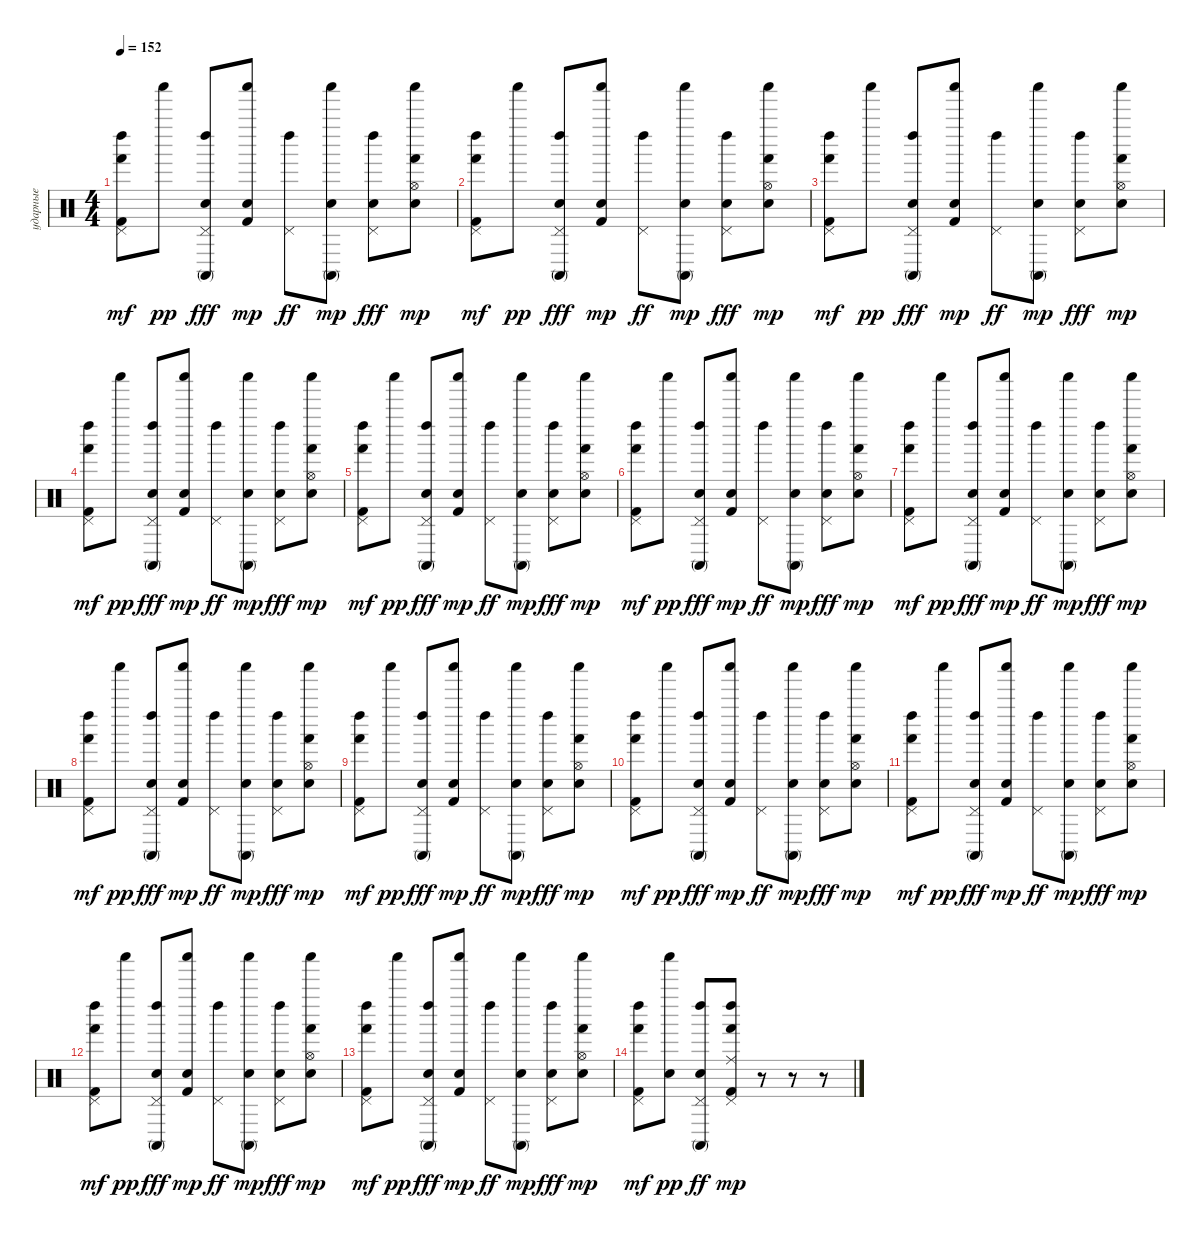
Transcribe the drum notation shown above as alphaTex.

\track ("ударные" "ударные") {instrument percussion}
\staff {score}
\articulation defaults
\ts (4 4)
\tempo 152
\clef neutral
\ks c
("Pedal Hi-Hat (hit)" "Left Maraca (hit)" "Hand (hit)" "Kick (hit) 2").8{dy mf} "Shaker (hit)".8{dy pp} ("Pedal Hi-Hat (hit)" "Left Maraca (hit)" "Conga high (mute)" "Snare (hit) 2").8{dy fff} ("Shaker (hit)" "Kick (hit) 2" "Electric Snare (hit)").8{dy mp} ("Pedal Hi-Hat (hit)" "Left Maraca (hit)").8{dy ff} ("Shaker (hit)" "Conga high (mute)" "Electric Snare (hit)").8{dy mp} ("Pedal Hi-Hat (hit)" "Left Maraca (hit)" "Snare (hit) 2").8{dy fff} ("Shaker (hit)" "Hi-Hat (open)" "Hand (hit)" "Electric Snare (hit)").8{dy mp} |
("Pedal Hi-Hat (hit)" "Left Maraca (hit)" "Hand (hit)" "Kick (hit) 2").8{dy mf} "Shaker (hit)".8{dy pp} ("Pedal Hi-Hat (hit)" "Left Maraca (hit)" "Conga high (mute)" "Snare (hit) 2").8{dy fff} ("Shaker (hit)" "Kick (hit) 2" "Electric Snare (hit)").8{dy mp} ("Pedal Hi-Hat (hit)" "Left Maraca (hit)").8{dy ff} ("Shaker (hit)" "Conga high (mute)" "Electric Snare (hit)").8{dy mp} ("Pedal Hi-Hat (hit)" "Left Maraca (hit)" "Snare (hit) 2").8{dy fff} ("Shaker (hit)" "Hi-Hat (open)" "Hand (hit)" "Electric Snare (hit)").8{dy mp} |
("Pedal Hi-Hat (hit)" "Left Maraca (hit)" "Hand (hit)" "Kick (hit) 2").8{dy mf} "Shaker (hit)".8{dy pp} ("Pedal Hi-Hat (hit)" "Left Maraca (hit)" "Conga high (mute)" "Snare (hit) 2").8{dy fff} ("Shaker (hit)" "Kick (hit) 2" "Electric Snare (hit)").8{dy mp} ("Pedal Hi-Hat (hit)" "Left Maraca (hit)").8{dy ff} ("Shaker (hit)" "Conga high (mute)" "Electric Snare (hit)").8{dy mp} ("Pedal Hi-Hat (hit)" "Left Maraca (hit)" "Snare (hit) 2").8{dy fff} ("Shaker (hit)" "Hi-Hat (open)" "Hand (hit)" "Electric Snare (hit)").8{dy mp} |
("Pedal Hi-Hat (hit)" "Left Maraca (hit)" "Hand (hit)" "Kick (hit) 2").8{dy mf} "Shaker (hit)".8{dy pp} ("Pedal Hi-Hat (hit)" "Left Maraca (hit)" "Conga high (mute)" "Snare (hit) 2").8{dy fff} ("Shaker (hit)" "Kick (hit) 2" "Electric Snare (hit)").8{dy mp} ("Pedal Hi-Hat (hit)" "Left Maraca (hit)").8{dy ff} ("Shaker (hit)" "Conga high (mute)" "Electric Snare (hit)").8{dy mp} ("Pedal Hi-Hat (hit)" "Left Maraca (hit)" "Snare (hit) 2").8{dy fff} ("Shaker (hit)" "Hi-Hat (open)" "Hand (hit)" "Electric Snare (hit)").8{dy mp} |
("Pedal Hi-Hat (hit)" "Left Maraca (hit)" "Hand (hit)" "Kick (hit) 2").8{dy mf} "Shaker (hit)".8{dy pp} ("Pedal Hi-Hat (hit)" "Left Maraca (hit)" "Conga high (mute)" "Snare (hit) 2").8{dy fff} ("Shaker (hit)" "Kick (hit) 2" "Electric Snare (hit)").8{dy mp} ("Pedal Hi-Hat (hit)" "Left Maraca (hit)").8{dy ff} ("Shaker (hit)" "Conga high (mute)" "Electric Snare (hit)").8{dy mp} ("Pedal Hi-Hat (hit)" "Left Maraca (hit)" "Snare (hit) 2").8{dy fff} ("Shaker (hit)" "Hi-Hat (open)" "Hand (hit)" "Electric Snare (hit)").8{dy mp} |
("Pedal Hi-Hat (hit)" "Left Maraca (hit)" "Hand (hit)" "Kick (hit) 2").8{dy mf} "Shaker (hit)".8{dy pp} ("Pedal Hi-Hat (hit)" "Left Maraca (hit)" "Conga high (mute)" "Snare (hit) 2").8{dy fff} ("Shaker (hit)" "Kick (hit) 2" "Electric Snare (hit)").8{dy mp} ("Pedal Hi-Hat (hit)" "Left Maraca (hit)").8{dy ff} ("Shaker (hit)" "Conga high (mute)" "Electric Snare (hit)").8{dy mp} ("Pedal Hi-Hat (hit)" "Left Maraca (hit)" "Snare (hit) 2").8{dy fff} ("Shaker (hit)" "Hi-Hat (open)" "Hand (hit)" "Electric Snare (hit)").8{dy mp} |
("Pedal Hi-Hat (hit)" "Left Maraca (hit)" "Hand (hit)" "Kick (hit) 2").8{dy mf} "Shaker (hit)".8{dy pp} ("Pedal Hi-Hat (hit)" "Left Maraca (hit)" "Conga high (mute)" "Snare (hit) 2").8{dy fff} ("Shaker (hit)" "Kick (hit) 2" "Electric Snare (hit)").8{dy mp} ("Pedal Hi-Hat (hit)" "Left Maraca (hit)").8{dy ff} ("Shaker (hit)" "Conga high (mute)" "Electric Snare (hit)").8{dy mp} ("Pedal Hi-Hat (hit)" "Left Maraca (hit)" "Snare (hit) 2").8{dy fff} ("Shaker (hit)" "Hi-Hat (open)" "Hand (hit)" "Electric Snare (hit)").8{dy mp} |
("Pedal Hi-Hat (hit)" "Left Maraca (hit)" "Hand (hit)" "Kick (hit) 2").8{dy mf} "Shaker (hit)".8{dy pp} ("Pedal Hi-Hat (hit)" "Left Maraca (hit)" "Conga high (mute)" "Snare (hit) 2").8{dy fff} ("Shaker (hit)" "Kick (hit) 2" "Electric Snare (hit)").8{dy mp} ("Pedal Hi-Hat (hit)" "Left Maraca (hit)").8{dy ff} ("Shaker (hit)" "Conga high (mute)" "Electric Snare (hit)").8{dy mp} ("Pedal Hi-Hat (hit)" "Left Maraca (hit)" "Snare (hit) 2").8{dy fff} ("Shaker (hit)" "Hi-Hat (open)" "Hand (hit)" "Electric Snare (hit)").8{dy mp} |
("Pedal Hi-Hat (hit)" "Left Maraca (hit)" "Hand (hit)" "Kick (hit) 2").8{dy mf} "Shaker (hit)".8{dy pp} ("Pedal Hi-Hat (hit)" "Left Maraca (hit)" "Conga high (mute)" "Snare (hit) 2").8{dy fff} ("Shaker (hit)" "Kick (hit) 2" "Electric Snare (hit)").8{dy mp} ("Pedal Hi-Hat (hit)" "Left Maraca (hit)").8{dy ff} ("Shaker (hit)" "Conga high (mute)" "Electric Snare (hit)").8{dy mp} ("Pedal Hi-Hat (hit)" "Left Maraca (hit)" "Snare (hit) 2").8{dy fff} ("Shaker (hit)" "Hi-Hat (open)" "Hand (hit)" "Electric Snare (hit)").8{dy mp} |
("Pedal Hi-Hat (hit)" "Left Maraca (hit)" "Hand (hit)" "Kick (hit) 2").8{dy mf} "Shaker (hit)".8{dy pp} ("Pedal Hi-Hat (hit)" "Left Maraca (hit)" "Conga high (mute)" "Snare (hit) 2").8{dy fff} ("Shaker (hit)" "Kick (hit) 2" "Electric Snare (hit)").8{dy mp} ("Pedal Hi-Hat (hit)" "Left Maraca (hit)").8{dy ff} ("Shaker (hit)" "Conga high (mute)" "Electric Snare (hit)").8{dy mp} ("Pedal Hi-Hat (hit)" "Left Maraca (hit)" "Snare (hit) 2").8{dy fff} ("Shaker (hit)" "Hi-Hat (open)" "Hand (hit)" "Electric Snare (hit)").8{dy mp} |
("Pedal Hi-Hat (hit)" "Left Maraca (hit)" "Hand (hit)" "Kick (hit) 2").8{dy mf} "Shaker (hit)".8{dy pp} ("Pedal Hi-Hat (hit)" "Left Maraca (hit)" "Conga high (mute)" "Snare (hit) 2").8{dy fff} ("Shaker (hit)" "Kick (hit) 2" "Electric Snare (hit)").8{dy mp} ("Pedal Hi-Hat (hit)" "Left Maraca (hit)").8{dy ff} ("Shaker (hit)" "Conga high (mute)" "Electric Snare (hit)").8{dy mp} ("Pedal Hi-Hat (hit)" "Left Maraca (hit)" "Snare (hit) 2").8{dy fff} ("Shaker (hit)" "Hi-Hat (open)" "Hand (hit)" "Electric Snare (hit)").8{dy mp} |
("Pedal Hi-Hat (hit)" "Left Maraca (hit)" "Hand (hit)" "Kick (hit) 2").8{dy mf} "Shaker (hit)".8{dy pp} ("Pedal Hi-Hat (hit)" "Left Maraca (hit)" "Conga high (mute)" "Snare (hit) 2").8{dy fff} ("Shaker (hit)" "Kick (hit) 2" "Electric Snare (hit)").8{dy mp} ("Pedal Hi-Hat (hit)" "Left Maraca (hit)").8{dy ff} ("Shaker (hit)" "Conga high (mute)" "Electric Snare (hit)").8{dy mp} ("Pedal Hi-Hat (hit)" "Left Maraca (hit)" "Snare (hit) 2").8{dy fff} ("Shaker (hit)" "Hi-Hat (open)" "Hand (hit)" "Electric Snare (hit)").8{dy mp} |
("Pedal Hi-Hat (hit)" "Left Maraca (hit)" "Hand (hit)" "Kick (hit) 2").8{dy mf} "Shaker (hit)".8{dy pp} ("Pedal Hi-Hat (hit)" "Left Maraca (hit)" "Conga high (mute)" "Snare (hit) 2").8{dy fff} ("Shaker (hit)" "Kick (hit) 2" "Electric Snare (hit)").8{dy mp} ("Pedal Hi-Hat (hit)" "Left Maraca (hit)").8{dy ff} ("Shaker (hit)" "Conga high (mute)" "Electric Snare (hit)").8{dy mp} ("Pedal Hi-Hat (hit)" "Left Maraca (hit)" "Snare (hit) 2").8{dy fff} ("Shaker (hit)" "Hi-Hat (open)" "Hand (hit)" "Electric Snare (hit)").8{dy mp} |
("Pedal Hi-Hat (hit)" "Left Maraca (hit)" "Hand (hit)" "Kick (hit) 2").8{dy mf} ("Shaker (hit)" "Snare (hit) 2").8{dy pp} ("Pedal Hi-Hat (hit)" "Left Maraca (hit)" "Conga high (mute)" "Snare (hit) 2").8{dy ff} ("Pedal Hi-Hat (hit)" "Left Maraca (hit)" "Hand (hit)" "Kick (hit) 2" "Ride (middle)").8{dy mp} r.8 r.8 r.8
